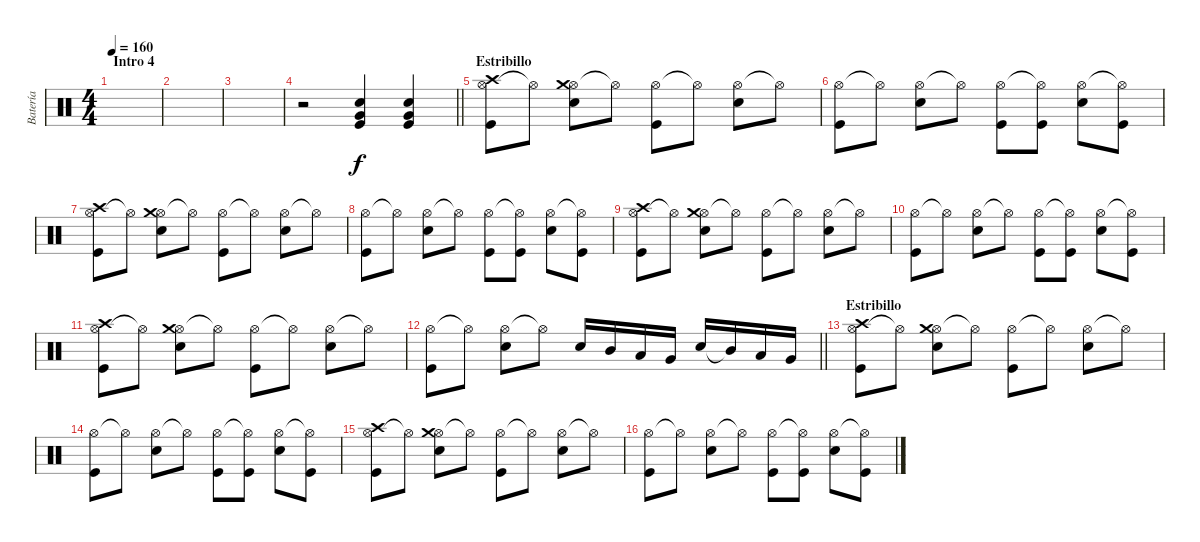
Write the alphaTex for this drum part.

\track ("Batería" "Batería") {instrument percussion}
\staff {score}
\articulation defaults
\ts (4 4)
\section ("" "Intro 4")
\tempo 160
\clef neutral
\ks c
|
|
|
\barLineRight lightlight
r.2 ("Very Low Tom (hit)" "Electric Snare (hit)" "Kick (hit)").4 ("Very Low Tom (hit)" "Electric Snare (hit)" "Kick (hit)").4 |
\section ("" "Estribillo")
("Hi-Hat (open)" "Kick (hit)" "Crash high (hit)").8 "Hi-Hat (open)"{t}.8 ("Hi-Hat (open)" "Electric Snare (hit)" "Crash medium (hit)").8 "Hi-Hat (open)"{t}.8 ("Hi-Hat (open)" "Kick (hit)").8 "Hi-Hat (open)"{t}.8 ("Hi-Hat (open)" "Electric Snare (hit)").8 "Hi-Hat (open)"{t}.8 |
("Hi-Hat (open)" "Kick (hit)").8 "Hi-Hat (open)"{t}.8 ("Hi-Hat (open)" "Electric Snare (hit)").8 "Hi-Hat (open)"{t}.8 ("Hi-Hat (open)" "Kick (hit)").8 ("Hi-Hat (open)"{t} "Kick (hit)").8 ("Hi-Hat (open)" "Electric Snare (hit)").8 ("Hi-Hat (open)"{t} "Kick (hit)").8 |
("Hi-Hat (open)" "Kick (hit)" "Crash high (hit)").8 "Hi-Hat (open)"{t}.8 ("Hi-Hat (open)" "Electric Snare (hit)" "Crash medium (hit)").8 "Hi-Hat (open)"{t}.8 ("Hi-Hat (open)" "Kick (hit)").8 "Hi-Hat (open)"{t}.8 ("Hi-Hat (open)" "Electric Snare (hit)").8 "Hi-Hat (open)"{t}.8 |
("Hi-Hat (open)" "Kick (hit)").8 "Hi-Hat (open)"{t}.8 ("Hi-Hat (open)" "Electric Snare (hit)").8 "Hi-Hat (open)"{t}.8 ("Hi-Hat (open)" "Kick (hit)").8 ("Hi-Hat (open)"{t} "Kick (hit)").8 ("Hi-Hat (open)" "Electric Snare (hit)").8 ("Hi-Hat (open)"{t} "Kick (hit)").8 |
("Hi-Hat (open)" "Kick (hit)" "Crash high (hit)").8 "Hi-Hat (open)"{t}.8 ("Hi-Hat (open)" "Electric Snare (hit)" "Crash medium (hit)").8 "Hi-Hat (open)"{t}.8 ("Hi-Hat (open)" "Kick (hit)").8 "Hi-Hat (open)"{t}.8 ("Hi-Hat (open)" "Electric Snare (hit)").8 "Hi-Hat (open)"{t}.8 |
("Hi-Hat (open)" "Kick (hit)").8 "Hi-Hat (open)"{t}.8 ("Hi-Hat (open)" "Electric Snare (hit)").8 "Hi-Hat (open)"{t}.8 ("Hi-Hat (open)" "Kick (hit)").8 ("Hi-Hat (open)"{t} "Kick (hit)").8 ("Hi-Hat (open)" "Electric Snare (hit)").8 ("Hi-Hat (open)"{t} "Kick (hit)").8 |
("Hi-Hat (open)" "Kick (hit)" "Crash high (hit)").8 "Hi-Hat (open)"{t}.8 ("Hi-Hat (open)" "Electric Snare (hit)" "Crash medium (hit)").8 "Hi-Hat (open)"{t}.8 ("Hi-Hat (open)" "Kick (hit)").8 "Hi-Hat (open)"{t}.8 ("Hi-Hat (open)" "Electric Snare (hit)").8 "Hi-Hat (open)"{t}.8 |
\barLineRight lightlight
("Hi-Hat (open)" "Kick (hit)").8 "Hi-Hat (open)"{t}.8 ("Hi-Hat (open)" "Electric Snare (hit)").8 "Hi-Hat (open)"{t}.8 "Electric Snare (hit)".16 "Mid Tom (hit)".16 "Low Tom (hit)".16 "Very Low Tom (hit)".16 "Electric Snare (hit)".16 "Mid Tom (hit)"{t}.16 "Low Tom (hit)".16 "Very Low Tom (hit)".16 |
\section ("" "Estribillo")
("Hi-Hat (open)" "Kick (hit)" "Crash high (hit)").8 "Hi-Hat (open)"{t}.8 ("Hi-Hat (open)" "Electric Snare (hit)" "Crash medium (hit)").8 "Hi-Hat (open)"{t}.8 ("Hi-Hat (open)" "Kick (hit)").8 "Hi-Hat (open)"{t}.8 ("Hi-Hat (open)" "Electric Snare (hit)").8 "Hi-Hat (open)"{t}.8 |
("Hi-Hat (open)" "Kick (hit)").8 "Hi-Hat (open)"{t}.8 ("Hi-Hat (open)" "Electric Snare (hit)").8 "Hi-Hat (open)"{t}.8 ("Hi-Hat (open)" "Kick (hit)").8 ("Hi-Hat (open)"{t} "Kick (hit)").8 ("Hi-Hat (open)" "Electric Snare (hit)").8 ("Hi-Hat (open)"{t} "Kick (hit)").8 |
("Hi-Hat (open)" "Kick (hit)" "Crash high (hit)").8 "Hi-Hat (open)"{t}.8 ("Hi-Hat (open)" "Electric Snare (hit)" "Crash medium (hit)").8 "Hi-Hat (open)"{t}.8 ("Hi-Hat (open)" "Kick (hit)").8 "Hi-Hat (open)"{t}.8 ("Hi-Hat (open)" "Electric Snare (hit)").8 "Hi-Hat (open)"{t}.8 |
("Hi-Hat (open)" "Kick (hit)").8 "Hi-Hat (open)"{t}.8 ("Hi-Hat (open)" "Electric Snare (hit)").8 "Hi-Hat (open)"{t}.8 ("Hi-Hat (open)" "Kick (hit)").8 ("Hi-Hat (open)"{t} "Kick (hit)").8 ("Hi-Hat (open)" "Electric Snare (hit)").8 ("Hi-Hat (open)"{t} "Kick (hit)").8
